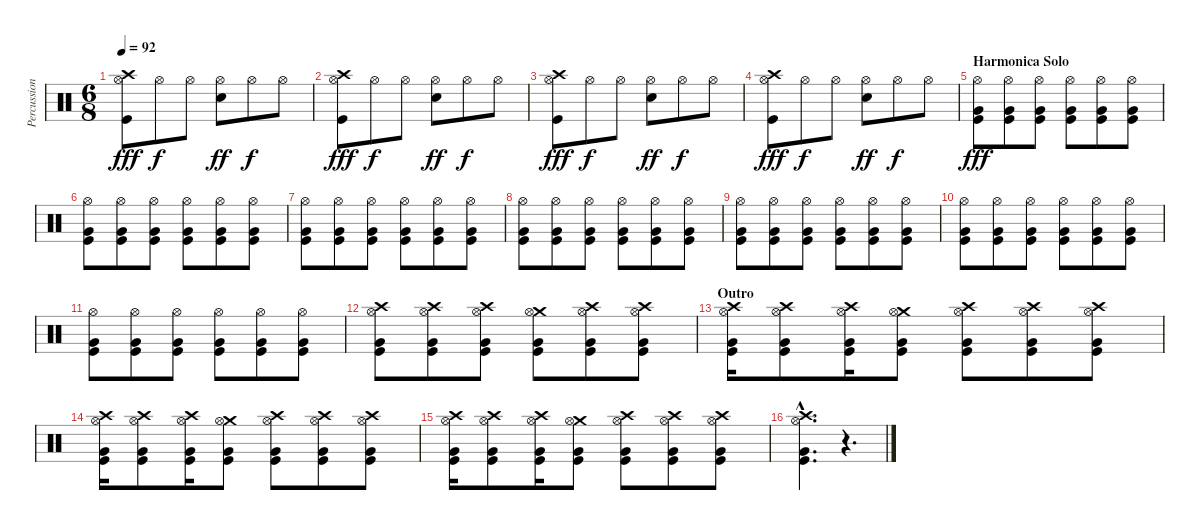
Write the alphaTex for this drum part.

\track ("Percussion" "Percussion") {instrument percussion}
\staff {score}
\articulation defaults
\ts (6 8)
\tempo 92
\clef neutral
\ks c
("Crash high (hit)" "Hi-Hat (open)" "Kick (hit)").8{dy fff} "Hi-Hat (open)".8{dy f} "Hi-Hat (open)".8 ("Hi-Hat (open)" "Snare (hit) 2").8{dy ff} "Hi-Hat (open)".8{dy f} "Hi-Hat (open)".8 |
("Crash high (hit)" "Hi-Hat (open)" "Kick (hit)").8{dy fff} "Hi-Hat (open)".8{dy f} "Hi-Hat (open)".8 ("Hi-Hat (open)" "Snare (hit) 2").8{dy ff} "Hi-Hat (open)".8{dy f} "Hi-Hat (open)".8 |
("Crash high (hit)" "Hi-Hat (open)" "Kick (hit)").8{dy fff} "Hi-Hat (open)".8{dy f} "Hi-Hat (open)".8 ("Hi-Hat (open)" "Snare (hit) 2").8{dy ff} "Hi-Hat (open)".8{dy f} "Hi-Hat (open)".8 |
("Crash high (hit)" "Hi-Hat (open)" "Kick (hit)").8{dy fff} "Hi-Hat (open)".8{dy f} "Hi-Hat (open)".8 ("Hi-Hat (open)" "Snare (hit) 2").8{dy ff} "Hi-Hat (open)".8{dy f} "Hi-Hat (open)".8 |
\section ("" "Harmonica Solo")
("Hi-Hat (open)" "Very Low Tom (hit)" "Kick (hit)").8{dy fff} ("Hi-Hat (open)" "Very Low Tom (hit)" "Kick (hit)").8 ("Hi-Hat (open)" "Very Low Tom (hit)" "Kick (hit)").8 ("Hi-Hat (open)" "Very Low Tom (hit)" "Kick (hit)").8 ("Hi-Hat (open)" "Very Low Tom (hit)" "Kick (hit)").8 ("Hi-Hat (open)" "Very Low Tom (hit)" "Kick (hit)").8 |
("Hi-Hat (open)" "Very Low Tom (hit)" "Kick (hit)").8 ("Hi-Hat (open)" "Very Low Tom (hit)" "Kick (hit)").8 ("Hi-Hat (open)" "Very Low Tom (hit)" "Kick (hit)").8 ("Hi-Hat (open)" "Very Low Tom (hit)" "Kick (hit)").8 ("Hi-Hat (open)" "Very Low Tom (hit)" "Kick (hit)").8 ("Hi-Hat (open)" "Very Low Tom (hit)" "Kick (hit)").8 |
("Hi-Hat (open)" "Very Low Tom (hit)" "Kick (hit)").8 ("Hi-Hat (open)" "Very Low Tom (hit)" "Kick (hit)").8 ("Hi-Hat (open)" "Very Low Tom (hit)" "Kick (hit)").8 ("Hi-Hat (open)" "Very Low Tom (hit)" "Kick (hit)").8 ("Hi-Hat (open)" "Very Low Tom (hit)" "Kick (hit)").8 ("Hi-Hat (open)" "Very Low Tom (hit)" "Kick (hit)").8 |
("Hi-Hat (open)" "Very Low Tom (hit)" "Kick (hit)").8 ("Hi-Hat (open)" "Very Low Tom (hit)" "Kick (hit)").8 ("Hi-Hat (open)" "Very Low Tom (hit)" "Kick (hit)").8 ("Hi-Hat (open)" "Very Low Tom (hit)" "Kick (hit)").8 ("Hi-Hat (open)" "Very Low Tom (hit)" "Kick (hit)").8 ("Hi-Hat (open)" "Very Low Tom (hit)" "Kick (hit)").8 |
("Hi-Hat (open)" "Very Low Tom (hit)" "Kick (hit)").8 ("Hi-Hat (open)" "Very Low Tom (hit)" "Kick (hit)").8 ("Hi-Hat (open)" "Very Low Tom (hit)" "Kick (hit)").8 ("Hi-Hat (open)" "Very Low Tom (hit)" "Kick (hit)").8 ("Hi-Hat (open)" "Very Low Tom (hit)" "Kick (hit)").8 ("Hi-Hat (open)" "Very Low Tom (hit)" "Kick (hit)").8 |
("Hi-Hat (open)" "Very Low Tom (hit)" "Kick (hit)").8 ("Hi-Hat (open)" "Very Low Tom (hit)" "Kick (hit)").8 ("Hi-Hat (open)" "Very Low Tom (hit)" "Kick (hit)").8 ("Hi-Hat (open)" "Very Low Tom (hit)" "Kick (hit)").8 ("Hi-Hat (open)" "Very Low Tom (hit)" "Kick (hit)").8 ("Hi-Hat (open)" "Very Low Tom (hit)" "Kick (hit)").8 |
("Hi-Hat (open)" "Very Low Tom (hit)" "Kick (hit)").8 ("Hi-Hat (open)" "Very Low Tom (hit)" "Kick (hit)").8 ("Hi-Hat (open)" "Very Low Tom (hit)" "Kick (hit)").8 ("Hi-Hat (open)" "Very Low Tom (hit)" "Kick (hit)").8 ("Hi-Hat (open)" "Very Low Tom (hit)" "Kick (hit)").8 ("Hi-Hat (open)" "Very Low Tom (hit)" "Kick (hit)").8 |
("Crash high (hit)" "Hi-Hat (open)" "Very Low Tom (hit)" "Kick (hit)").8 ("Crash high (hit)" "Hi-Hat (open)" "Very Low Tom (hit)" "Kick (hit)").8 ("Crash high (hit)" "Hi-Hat (open)" "Very Low Tom (hit)" "Kick (hit)").8 ("Crash medium (hit)" "Hi-Hat (open)" "Very Low Tom (hit)" "Kick (hit)").8 ("Crash high (hit)" "Hi-Hat (open)" "Very Low Tom (hit)" "Kick (hit)").8 ("Crash high (hit)" "Hi-Hat (open)" "Very Low Tom (hit)" "Kick (hit)").8 |
\section ("" "Outro")
("Crash high (hit)" "Hi-Hat (open)" "Very Low Tom (hit)" "Kick (hit)").16 ("Crash high (hit)" "Hi-Hat (open)" "Very Low Tom (hit)" "Kick (hit)").8 ("Crash high (hit)" "Hi-Hat (open)" "Very Low Tom (hit)" "Kick (hit)").16 ("Crash medium (hit)" "Hi-Hat (open)" "Very Low Tom (hit)" "Kick (hit)").8 ("Crash high (hit)" "Hi-Hat (open)" "Very Low Tom (hit)" "Kick (hit)").8 ("Crash high (hit)" "Hi-Hat (open)" "Very Low Tom (hit)" "Kick (hit)").8 ("Crash high (hit)" "Hi-Hat (open)" "Very Low Tom (hit)" "Kick (hit)").8 |
("Crash high (hit)" "Hi-Hat (open)" "Very Low Tom (hit)" "Kick (hit)").16 ("Crash high (hit)" "Hi-Hat (open)" "Very Low Tom (hit)" "Kick (hit)").8 ("Crash high (hit)" "Hi-Hat (open)" "Very Low Tom (hit)" "Kick (hit)").16 ("Crash medium (hit)" "Hi-Hat (open)" "Very Low Tom (hit)" "Kick (hit)").8 ("Crash high (hit)" "Hi-Hat (open)" "Very Low Tom (hit)" "Kick (hit)").8 ("Crash high (hit)" "Hi-Hat (open)" "Very Low Tom (hit)" "Kick (hit)").8 ("Crash high (hit)" "Hi-Hat (open)" "Very Low Tom (hit)" "Kick (hit)").8 |
("Crash high (hit)" "Hi-Hat (open)" "Very Low Tom (hit)" "Kick (hit)").16 ("Crash high (hit)" "Hi-Hat (open)" "Very Low Tom (hit)" "Kick (hit)").8 ("Crash high (hit)" "Hi-Hat (open)" "Very Low Tom (hit)" "Kick (hit)").16 ("Crash medium (hit)" "Hi-Hat (open)" "Very Low Tom (hit)" "Kick (hit)").8 ("Crash high (hit)" "Hi-Hat (open)" "Very Low Tom (hit)" "Kick (hit)").8 ("Crash high (hit)" "Hi-Hat (open)" "Very Low Tom (hit)" "Kick (hit)").8 ("Crash high (hit)" "Hi-Hat (open)" "Very Low Tom (hit)" "Kick (hit)").8 |
("Crash high (hit)"{hac} "Hi-Hat (open)"{hac} "Very Low Tom (hit)"{hac} "Kick (hit)"{hac}).4{d} r.4{d}
